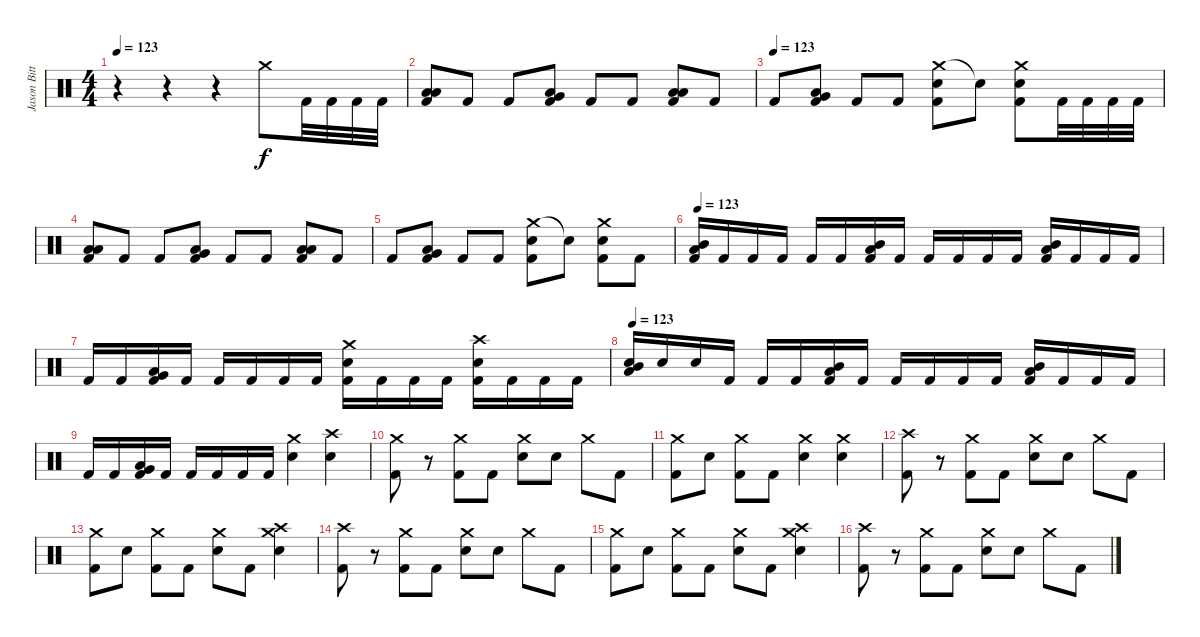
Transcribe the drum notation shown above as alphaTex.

\track ("Jason Bittner" "Jason Bitt") {instrument percussion}
\staff {score}
\articulation defaults
\ts (4 4)
\tempo 123
\clef neutral
\ks c
r.4{dy f} r.4 r.4 "Crash medium (hit)".8 "Kick (hit) 2".32 "Kick (hit) 2".32 "Kick (hit) 2".32 "Kick (hit) 2".32 |
("Low Floor Tom (hit)" "Kick (hit) 2" "Low Tom (hit)").8 "Kick (hit) 2".8 "Kick (hit) 2".8 ("Low Floor Tom (hit)" "Kick (hit) 2" "Very Low Tom (hit)").8 "Kick (hit) 2".8 "Kick (hit) 2".8 ("Low Floor Tom (hit)" "Kick (hit) 2" "Low Tom (hit)").8 "Kick (hit) 2".8 |
\tempo (123)
"Kick (hit) 2".8 ("Low Floor Tom (hit)" "Kick (hit) 2" "Very Low Tom (hit)").8 "Kick (hit) 2".8 "Kick (hit) 2".8 ("Crash medium (hit)" "Kick (hit) 2" "Electric Snare (hit)").8 "Snare (hit)"{t}.8 ("Crash medium (hit)" "Kick (hit) 2" "Electric Snare (hit)").8 "Kick (hit) 2".32 "Kick (hit) 2".32 "Kick (hit) 2".32 "Kick (hit) 2".32 |
("Low Floor Tom (hit)" "Kick (hit) 2" "Low Tom (hit)").8 "Kick (hit) 2".8 "Kick (hit) 2".8 ("Low Floor Tom (hit)" "Kick (hit) 2" "Very Low Tom (hit)").8 "Kick (hit) 2".8 "Kick (hit) 2".8 ("Low Floor Tom (hit)" "Kick (hit) 2" "Low Tom (hit)").8 "Kick (hit) 2".8 |
"Kick (hit) 2".8 ("Low Floor Tom (hit)" "Kick (hit) 2" "Very Low Tom (hit)").8 "Kick (hit) 2".8 "Kick (hit) 2".8 ("Crash medium (hit)" "Kick (hit) 2" "Electric Snare (hit)").8 "Snare (hit)"{t}.8 ("Crash medium (hit)" "Kick (hit) 2" "Electric Snare (hit)").8 "Kick (hit) 2".8 |
\tempo 123
("Mid Tom (hit)" "Kick (hit) 2" "Low Tom (hit)").16 "Kick (hit) 2".16 "Kick (hit) 2".16 "Kick (hit) 2".16 "Kick (hit) 2".16 "Kick (hit) 2".16 ("Mid Tom (hit)" "Kick (hit) 2" "Low Tom (hit)").16 "Kick (hit) 2".16 "Kick (hit) 2".16 "Kick (hit) 2".16 "Kick (hit) 2".16 "Kick (hit) 2".16 ("Mid Tom (hit)" "Kick (hit) 2" "Low Tom (hit)").16 "Kick (hit) 2".16 "Kick (hit) 2".16 "Kick (hit) 2".16 |
"Kick (hit) 2".16 "Kick (hit) 2".16 ("Low Floor Tom (hit)" "Kick (hit) 2" "Very Low Tom (hit)").16 "Kick (hit) 2".16 "Kick (hit) 2".16 "Kick (hit) 2".16 "Kick (hit) 2".16 "Kick (hit) 2".16 ("Crash medium (hit)" "Kick (hit) 2" "Electric Snare (hit)").16 "Kick (hit) 2".16 "Kick (hit) 2".16 "Kick (hit) 2".16 ("Crash high (hit)" "Kick (hit) 2" "Electric Snare (hit)").16 "Kick (hit) 2".16 "Kick (hit) 2".16 "Kick (hit) 2".16 |
\tempo 123
("Mid Tom (hit)" "Electric Snare (hit)" "Low Tom (hit)").16 "Electric Snare (hit)".16 "Electric Snare (hit)".16 "Kick (hit) 2".16 "Kick (hit) 2".16 "Kick (hit) 2".16 ("Mid Tom (hit)" "Kick (hit) 2" "Low Tom (hit)").16 "Kick (hit) 2".16 "Kick (hit) 2".16 "Kick (hit) 2".16 "Kick (hit) 2".16 "Kick (hit) 2".16 ("Mid Tom (hit)" "Kick (hit) 2" "Low Tom (hit)").16 "Kick (hit) 2".16 "Kick (hit) 2".16 "Kick (hit) 2".16 |
"Kick (hit) 2".16 "Kick (hit) 2".16 ("Low Floor Tom (hit)" "Kick (hit) 2" "Very Low Tom (hit)").16 "Kick (hit) 2".16 "Kick (hit) 2".16 "Kick (hit) 2".16 "Kick (hit) 2".16 "Kick (hit) 2".16 ("Crash medium (hit)" "Electric Snare (hit)").4 ("Crash high (hit)" "Electric Snare (hit)").4 |
("Crash medium (hit)" "Kick (hit) 2").8 r.8 ("Crash medium (hit)" "Kick (hit) 2").8 "Kick (hit) 2".8 ("Crash medium (hit)" "Electric Snare (hit)").8 "Electric Snare (hit)".8 "Crash medium (hit)".8 "Kick (hit) 2".8 |
("Crash medium (hit)" "Kick (hit) 2").8 "Electric Snare (hit)".8 ("Crash medium (hit)" "Kick (hit) 2").8 "Kick (hit) 2".8 ("Crash medium (hit)" "Electric Snare (hit)").4 ("Crash medium (hit)" "Electric Snare (hit)").4 |
("Crash high (hit)" "Kick (hit) 2").8 r.8 ("Crash medium (hit)" "Kick (hit) 2").8 "Kick (hit) 2".8 ("Crash medium (hit)" "Electric Snare (hit)").8 "Electric Snare (hit)".8 "Crash medium (hit)".8 "Kick (hit) 2".8 |
("Crash medium (hit)" "Kick (hit) 2").8 "Electric Snare (hit)".8 ("Crash medium (hit)" "Kick (hit) 2").8 "Kick (hit) 2".8 ("Crash medium (hit)" "Electric Snare (hit)").8 "Kick (hit) 2".8 ("Crash high (hit)" "Crash medium (hit)" "Electric Snare (hit)").4 |
("Crash high (hit)" "Kick (hit) 2").8 r.8 ("Crash medium (hit)" "Kick (hit) 2").8 "Kick (hit) 2".8 ("Crash medium (hit)" "Electric Snare (hit)").8 "Electric Snare (hit)".8 "Crash medium (hit)".8 "Kick (hit) 2".8 |
("Crash medium (hit)" "Kick (hit) 2").8 "Electric Snare (hit)".8 ("Crash medium (hit)" "Kick (hit) 2").8 "Kick (hit) 2".8 ("Crash medium (hit)" "Electric Snare (hit)").8 "Kick (hit) 2".8 ("Crash high (hit)" "Crash medium (hit)" "Electric Snare (hit)").4 |
("Crash high (hit)" "Kick (hit) 2").8 r.8 ("Crash medium (hit)" "Kick (hit) 2").8 "Kick (hit) 2".8 ("Crash medium (hit)" "Electric Snare (hit)").8 "Electric Snare (hit)".8 "Crash medium (hit)".8 "Kick (hit) 2".8
